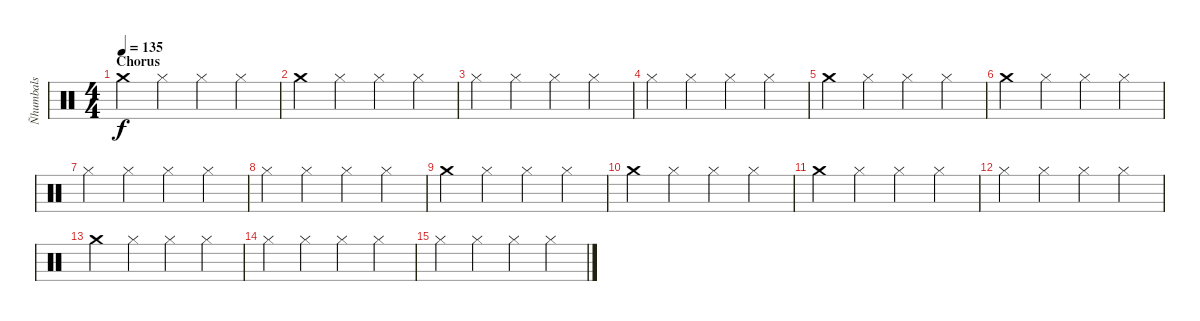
\track ("Ñhumbals" "Ñhumbals") {instrument percussion}
\staff {score}
\articulation defaults
\ts (4 4)
\section ("" "Chorus")
\tempo 135
\clef neutral
\ks c "Crash medium (hit)".4{dy f} "Hi-Hat (closed)".4 "Hi-Hat (closed)".4 "Hi-Hat (closed)".4
|
"Crash medium (hit)".4 "Hi-Hat (closed)".4 "Hi-Hat (closed)".4 "Hi-Hat (closed)".4 |
"Hi-Hat (closed)".4 "Hi-Hat (closed)".4 "Hi-Hat (closed)".4 "Hi-Hat (closed)".4 |
"Hi-Hat (closed)".4 "Hi-Hat (closed)".4 "Hi-Hat (closed)".4 "Hi-Hat (closed)".4 |
"Crash medium (hit)".4 "Hi-Hat (closed)".4 "Hi-Hat (closed)".4 "Hi-Hat (closed)".4 |
"Crash medium (hit)".4 "Hi-Hat (closed)".4 "Hi-Hat (closed)".4 "Hi-Hat (closed)".4 |
"Hi-Hat (closed)".4 "Hi-Hat (closed)".4 "Hi-Hat (closed)".4 "Hi-Hat (closed)".4 |
"Hi-Hat (closed)".4 "Hi-Hat (closed)".4 "Hi-Hat (closed)".4 "Hi-Hat (closed)".4 |
"Crash medium (hit)".4 "Hi-Hat (closed)".4 "Hi-Hat (closed)".4 "Hi-Hat (closed)".4 |
"Crash medium (hit)".4 "Hi-Hat (closed)".4 "Hi-Hat (closed)".4 "Hi-Hat (closed)".4 |
"Crash medium (hit)".4 "Hi-Hat (closed)".4 "Hi-Hat (closed)".4 "Hi-Hat (closed)".4 |
"Hi-Hat (closed)".4 "Hi-Hat (closed)".4 "Hi-Hat (closed)".4 "Hi-Hat (closed)".4 |
"Crash medium (hit)".4 "Hi-Hat (closed)".4 "Hi-Hat (closed)".4 "Hi-Hat (closed)".4 |
"Hi-Hat (closed)".4 "Hi-Hat (closed)".4 "Hi-Hat (closed)".4 "Hi-Hat (closed)".4 |
"Hi-Hat (closed)".4 "Hi-Hat (closed)".4 "Hi-Hat (closed)".4 "Hi-Hat (closed)".4
